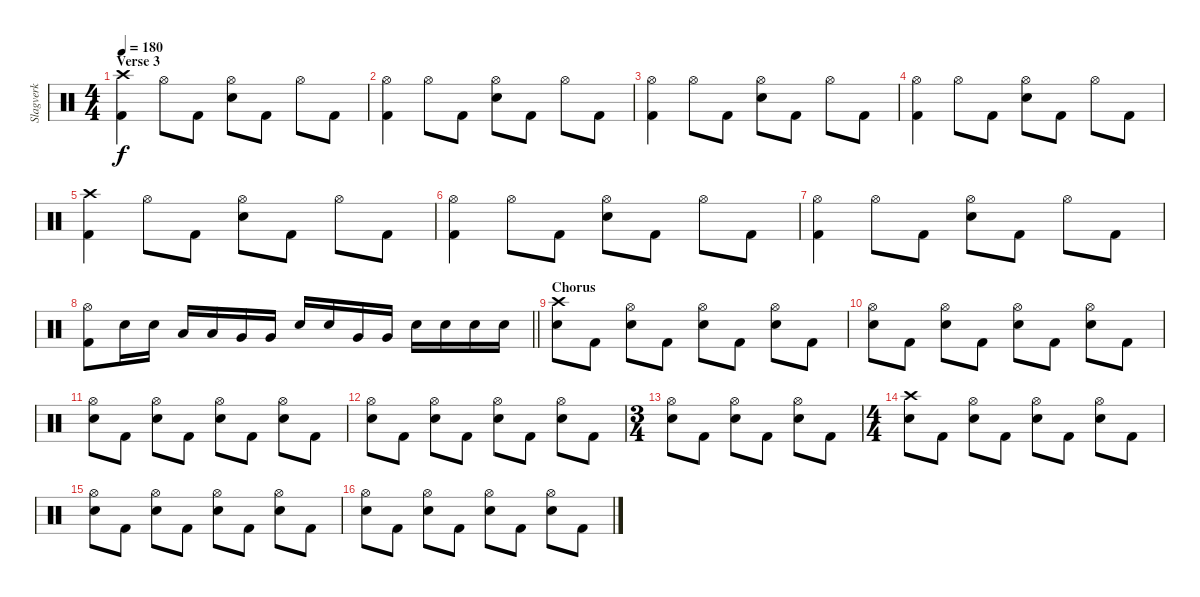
\track ("Slagverk" "Slagverk") {instrument percussion}
\staff {score}
\articulation defaults
\ts (4 4)
\section ("" "Verse 3")
\tempo 180
\clef neutral
\ks c
("Crash high (hit)" "Kick (hit) 2").4{dy f} "Hi-Hat (open)".8 "Kick (hit) 2".8 ("Hi-Hat (open)" "Electric Snare (hit)").8 "Kick (hit) 2".8 "Hi-Hat (open)".8 "Kick (hit) 2".8 |
("Hi-Hat (open)" "Kick (hit) 2").4 "Hi-Hat (open)".8 "Kick (hit) 2".8 ("Hi-Hat (open)" "Electric Snare (hit)").8 "Kick (hit) 2".8 "Hi-Hat (open)".8 "Kick (hit) 2".8 |
("Hi-Hat (open)" "Kick (hit) 2").4 "Hi-Hat (open)".8 "Kick (hit) 2".8 ("Hi-Hat (open)" "Electric Snare (hit)").8 "Kick (hit) 2".8 "Hi-Hat (open)".8 "Kick (hit) 2".8 |
("Hi-Hat (open)" "Kick (hit) 2").4 "Hi-Hat (open)".8 "Kick (hit) 2".8 ("Hi-Hat (open)" "Electric Snare (hit)").8 "Kick (hit) 2".8 "Hi-Hat (open)".8 "Kick (hit) 2".8 |
("Crash high (hit)" "Kick (hit) 2").4 "Hi-Hat (open)".8 "Kick (hit) 2".8 ("Hi-Hat (open)" "Electric Snare (hit)").8 "Kick (hit) 2".8 "Hi-Hat (open)".8 "Kick (hit) 2".8 |
("Hi-Hat (open)" "Kick (hit) 2").4 "Hi-Hat (open)".8 "Kick (hit) 2".8 ("Hi-Hat (open)" "Electric Snare (hit)").8 "Kick (hit) 2".8 "Hi-Hat (open)".8 "Kick (hit) 2".8 |
("Hi-Hat (open)" "Kick (hit) 2").4 "Hi-Hat (open)".8 "Kick (hit) 2".8 ("Hi-Hat (open)" "Electric Snare (hit)").8 "Kick (hit) 2".8 "Hi-Hat (open)".8 "Kick (hit) 2".8 |
\barLineRight lightlight
("Hi-Hat (open)" "Kick (hit) 2").8 "Electric Snare (hit)".16 "Electric Snare (hit)".16 "Low Tom (hit)".16 "Low Tom (hit)".16 "Very Low Tom (hit)".16 "Very Low Tom (hit)".16 "Electric Snare (hit)".16 "Electric Snare (hit)".16 "Very Low Tom (hit)".16 "Very Low Tom (hit)".16 "Electric Snare (hit)".16 "Electric Snare (hit)".16 "Electric Snare (hit)".16 "Electric Snare (hit)".16 |
\section ("" "Chorus")
("Crash high (hit)" "Electric Snare (hit)").8 "Kick (hit) 2".8 ("Hi-Hat (open)" "Electric Snare (hit)").8 "Kick (hit) 2".8 ("Hi-Hat (open)" "Electric Snare (hit)").8 "Kick (hit) 2".8 ("Hi-Hat (open)" "Electric Snare (hit)").8 "Kick (hit) 2".8 |
("Hi-Hat (open)" "Electric Snare (hit)").8 "Kick (hit) 2".8 ("Hi-Hat (open)" "Electric Snare (hit)").8 "Kick (hit) 2".8 ("Hi-Hat (open)" "Electric Snare (hit)").8 "Kick (hit) 2".8 ("Hi-Hat (open)" "Electric Snare (hit)").8 "Kick (hit) 2".8 |
("Hi-Hat (open)" "Electric Snare (hit)").8 "Kick (hit) 2".8 ("Hi-Hat (open)" "Electric Snare (hit)").8 "Kick (hit) 2".8 ("Hi-Hat (open)" "Electric Snare (hit)").8 "Kick (hit) 2".8 ("Hi-Hat (open)" "Electric Snare (hit)").8 "Kick (hit) 2".8 |
("Hi-Hat (open)" "Electric Snare (hit)").8 "Kick (hit) 2".8 ("Hi-Hat (open)" "Electric Snare (hit)").8 "Kick (hit) 2".8 ("Hi-Hat (open)" "Electric Snare (hit)").8 "Kick (hit) 2".8 ("Hi-Hat (open)" "Electric Snare (hit)").8 "Kick (hit) 2".8 |
\ts (3 4)
("Hi-Hat (open)" "Electric Snare (hit)").8 "Kick (hit) 2".8 ("Hi-Hat (open)" "Electric Snare (hit)").8 "Kick (hit) 2".8 ("Hi-Hat (open)" "Electric Snare (hit)").8 "Kick (hit) 2".8 |
\ts (4 4)
("Crash high (hit)" "Electric Snare (hit)").8 "Kick (hit) 2".8 ("Hi-Hat (open)" "Electric Snare (hit)").8 "Kick (hit) 2".8 ("Hi-Hat (open)" "Electric Snare (hit)").8 "Kick (hit) 2".8 ("Hi-Hat (open)" "Electric Snare (hit)").8 "Kick (hit) 2".8 |
("Hi-Hat (open)" "Electric Snare (hit)").8 "Kick (hit) 2".8 ("Hi-Hat (open)" "Electric Snare (hit)").8 "Kick (hit) 2".8 ("Hi-Hat (open)" "Electric Snare (hit)").8 "Kick (hit) 2".8 ("Hi-Hat (open)" "Electric Snare (hit)").8 "Kick (hit) 2".8 |
("Hi-Hat (open)" "Electric Snare (hit)").8 "Kick (hit) 2".8 ("Hi-Hat (open)" "Electric Snare (hit)").8 "Kick (hit) 2".8 ("Hi-Hat (open)" "Electric Snare (hit)").8 "Kick (hit) 2".8 ("Hi-Hat (open)" "Electric Snare (hit)").8 "Kick (hit) 2".8
